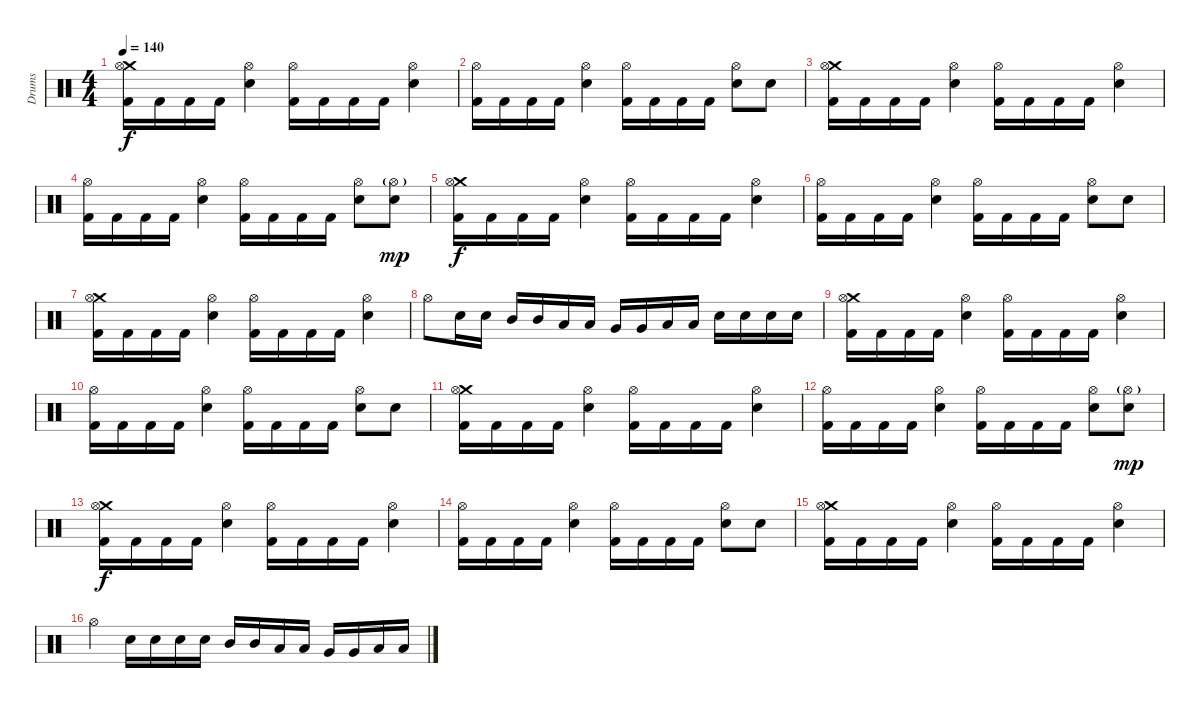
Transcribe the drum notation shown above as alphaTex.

\track ("Drums" "Drums") {instrument percussion}
\staff {score}
\articulation defaults
\ts (4 4)
\tempo 140
\clef neutral
\ks c
("Crash medium (hit)" "Hi-Hat (open)" "Kick (hit) 2").16{dy f} "Kick (hit) 2".16 "Kick (hit) 2".16 "Kick (hit) 2".16 ("Hi-Hat (open)" "Electric Snare (hit)").4 ("Hi-Hat (open)" "Kick (hit) 2").16 "Kick (hit) 2".16 "Kick (hit) 2".16 "Kick (hit) 2".16 ("Hi-Hat (open)" "Electric Snare (hit)").4 |
("Hi-Hat (open)" "Kick (hit) 2").16 "Kick (hit) 2".16 "Kick (hit) 2".16 "Kick (hit) 2".16 ("Hi-Hat (open)" "Electric Snare (hit)").4 ("Hi-Hat (open)" "Kick (hit) 2").16 "Kick (hit) 2".16 "Kick (hit) 2".16 "Kick (hit) 2".16 ("Hi-Hat (open)" "Electric Snare (hit)").8 "Electric Snare (hit)".8 |
("Crash medium (hit)" "Hi-Hat (open)" "Kick (hit) 2").16 "Kick (hit) 2".16 "Kick (hit) 2".16 "Kick (hit) 2".16 ("Hi-Hat (open)" "Electric Snare (hit)").4 ("Hi-Hat (open)" "Kick (hit) 2").16 "Kick (hit) 2".16 "Kick (hit) 2".16 "Kick (hit) 2".16 ("Hi-Hat (open)" "Electric Snare (hit)").4 |
("Hi-Hat (open)" "Kick (hit) 2").16 "Kick (hit) 2".16 "Kick (hit) 2".16 "Kick (hit) 2".16 ("Hi-Hat (open)" "Electric Snare (hit)").4 ("Hi-Hat (open)" "Kick (hit) 2").16 "Kick (hit) 2".16 "Kick (hit) 2".16 "Kick (hit) 2".16 ("Hi-Hat (open)" "Electric Snare (hit)").8 ("Hi-Hat (open)"{g} "Electric Snare (hit)").8{dy mp} |
("Crash medium (hit)" "Hi-Hat (open)" "Kick (hit) 2").16{dy f} "Kick (hit) 2".16 "Kick (hit) 2".16 "Kick (hit) 2".16 ("Hi-Hat (open)" "Electric Snare (hit)").4 ("Hi-Hat (open)" "Kick (hit) 2").16 "Kick (hit) 2".16 "Kick (hit) 2".16 "Kick (hit) 2".16 ("Hi-Hat (open)" "Electric Snare (hit)").4 |
("Hi-Hat (open)" "Kick (hit) 2").16 "Kick (hit) 2".16 "Kick (hit) 2".16 "Kick (hit) 2".16 ("Hi-Hat (open)" "Electric Snare (hit)").4 ("Hi-Hat (open)" "Kick (hit) 2").16 "Kick (hit) 2".16 "Kick (hit) 2".16 "Kick (hit) 2".16 ("Hi-Hat (open)" "Electric Snare (hit)").8 "Electric Snare (hit)".8 |
("Crash medium (hit)" "Hi-Hat (open)" "Kick (hit) 2").16 "Kick (hit) 2".16 "Kick (hit) 2".16 "Kick (hit) 2".16 ("Hi-Hat (open)" "Electric Snare (hit)").4 ("Hi-Hat (open)" "Kick (hit) 2").16 "Kick (hit) 2".16 "Kick (hit) 2".16 "Kick (hit) 2".16 ("Hi-Hat (open)" "Electric Snare (hit)").4 |
"Hi-Hat (open)".8 "Electric Snare (hit)".16 "Electric Snare (hit)".16 "Mid Tom (hit)".16 "Mid Tom (hit)".16 "Low Tom (hit)".16 "Low Tom (hit)".16 "Very Low Tom (hit)".16 "Very Low Tom (hit)".16 "Low Floor Tom (hit)".16 "Low Floor Tom (hit)".16 "Electric Snare (hit)".16 "Electric Snare (hit)".16 "Electric Snare (hit)".16 "Electric Snare (hit)".16 |
("Crash medium (hit)" "Hi-Hat (open)" "Kick (hit) 2").16 "Kick (hit) 2".16 "Kick (hit) 2".16 "Kick (hit) 2".16 ("Hi-Hat (open)" "Electric Snare (hit)").4 ("Hi-Hat (open)" "Kick (hit) 2").16 "Kick (hit) 2".16 "Kick (hit) 2".16 "Kick (hit) 2".16 ("Hi-Hat (open)" "Electric Snare (hit)").4 |
("Hi-Hat (open)" "Kick (hit) 2").16 "Kick (hit) 2".16 "Kick (hit) 2".16 "Kick (hit) 2".16 ("Hi-Hat (open)" "Electric Snare (hit)").4 ("Hi-Hat (open)" "Kick (hit) 2").16 "Kick (hit) 2".16 "Kick (hit) 2".16 "Kick (hit) 2".16 ("Hi-Hat (open)" "Electric Snare (hit)").8 "Electric Snare (hit)".8 |
("Crash medium (hit)" "Hi-Hat (open)" "Kick (hit) 2").16 "Kick (hit) 2".16 "Kick (hit) 2".16 "Kick (hit) 2".16 ("Hi-Hat (open)" "Electric Snare (hit)").4 ("Hi-Hat (open)" "Kick (hit) 2").16 "Kick (hit) 2".16 "Kick (hit) 2".16 "Kick (hit) 2".16 ("Hi-Hat (open)" "Electric Snare (hit)").4 |
("Hi-Hat (open)" "Kick (hit) 2").16 "Kick (hit) 2".16 "Kick (hit) 2".16 "Kick (hit) 2".16 ("Hi-Hat (open)" "Electric Snare (hit)").4 ("Hi-Hat (open)" "Kick (hit) 2").16 "Kick (hit) 2".16 "Kick (hit) 2".16 "Kick (hit) 2".16 ("Hi-Hat (open)" "Electric Snare (hit)").8 ("Hi-Hat (open)"{g} "Electric Snare (hit)").8{dy mp} |
("Crash medium (hit)" "Hi-Hat (open)" "Kick (hit) 2").16{dy f} "Kick (hit) 2".16 "Kick (hit) 2".16 "Kick (hit) 2".16 ("Hi-Hat (open)" "Electric Snare (hit)").4 ("Hi-Hat (open)" "Kick (hit) 2").16 "Kick (hit) 2".16 "Kick (hit) 2".16 "Kick (hit) 2".16 ("Hi-Hat (open)" "Electric Snare (hit)").4 |
("Hi-Hat (open)" "Kick (hit) 2").16 "Kick (hit) 2".16 "Kick (hit) 2".16 "Kick (hit) 2".16 ("Hi-Hat (open)" "Electric Snare (hit)").4 ("Hi-Hat (open)" "Kick (hit) 2").16 "Kick (hit) 2".16 "Kick (hit) 2".16 "Kick (hit) 2".16 ("Hi-Hat (open)" "Electric Snare (hit)").8 "Electric Snare (hit)".8 |
("Crash medium (hit)" "Hi-Hat (open)" "Kick (hit) 2").16 "Kick (hit) 2".16 "Kick (hit) 2".16 "Kick (hit) 2".16 ("Hi-Hat (open)" "Electric Snare (hit)").4 ("Hi-Hat (open)" "Kick (hit) 2").16 "Kick (hit) 2".16 "Kick (hit) 2".16 "Kick (hit) 2".16 ("Hi-Hat (open)" "Electric Snare (hit)").4 |
"Hi-Hat (open)".4 "Electric Snare (hit)".16 "Electric Snare (hit)".16 "Electric Snare (hit)".16 "Electric Snare (hit)".16 "Mid Tom (hit)".16 "Mid Tom (hit)".16 "Low Tom (hit)".16 "Low Tom (hit)".16 "Very Low Tom (hit)".16 "Very Low Tom (hit)".16 "Low Floor Tom (hit)".16 "Low Floor Tom (hit)".16
